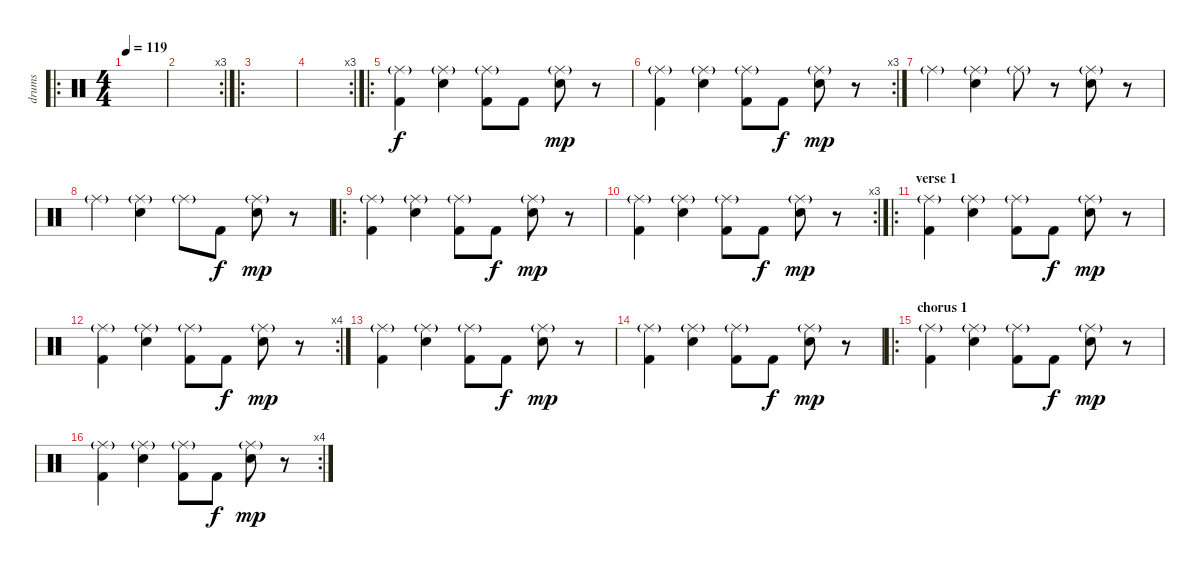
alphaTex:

\track ("drums" "drums") {instrument percussion}
\staff {score}
\articulation defaults
\ro
\ts (4 4)
\tempo 119
\clef neutral
\ks c
|
\rc 3
|
\ro
|
\rc 3
|
\ro
("Kick (hit) 2" "Ride (middle)"{g}).4 ("Electric Snare (hit)" "Ride (middle)"{g}).4 ("Kick (hit) 2" "Ride (middle)"{g}).8 "Kick (hit) 2".8{dy f} ("Electric Snare (hit)" "Ride (middle)"{g}).8{dy mp} r.8 |
\rc 3
("Kick (hit) 2" "Ride (middle)"{g}).4 ("Electric Snare (hit)" "Ride (middle)"{g}).4 ("Kick (hit) 2" "Ride (middle)"{g}).8 "Kick (hit) 2".8{dy f} ("Electric Snare (hit)" "Ride (middle)"{g}).8{dy mp} r.8 |
"Ride (middle)"{g}.4 ("Electric Snare (hit)" "Ride (middle)"{g}).4 "Ride (middle)"{g}.8 r.8 ("Electric Snare (hit)" "Ride (middle)"{g}).8 r.8 |
"Ride (middle)"{g}.4 ("Electric Snare (hit)" "Ride (middle)"{g}).4 "Ride (middle)"{g}.8 "Kick (hit) 2".8{dy f} ("Electric Snare (hit)" "Ride (middle)"{g}).8{dy mp} r.8 |
\ro
("Kick (hit) 2" "Ride (middle)"{g}).4 ("Electric Snare (hit)" "Ride (middle)"{g}).4 ("Kick (hit) 2" "Ride (middle)"{g}).8 "Kick (hit) 2".8{dy f} ("Electric Snare (hit)" "Ride (middle)"{g}).8{dy mp} r.8 |
\rc 3
("Kick (hit) 2" "Ride (middle)"{g}).4 ("Electric Snare (hit)" "Ride (middle)"{g}).4 ("Kick (hit) 2" "Ride (middle)"{g}).8 "Kick (hit) 2".8{dy f} ("Electric Snare (hit)" "Ride (middle)"{g}).8{dy mp} r.8 |
\ro
\section ("" "verse 1")
("Kick (hit) 2" "Ride (middle)"{g}).4 ("Electric Snare (hit)" "Ride (middle)"{g}).4 ("Kick (hit) 2" "Ride (middle)"{g}).8 "Kick (hit) 2".8{dy f} ("Electric Snare (hit)" "Ride (middle)"{g}).8{dy mp} r.8 |
\rc 4
("Kick (hit) 2" "Ride (middle)"{g}).4 ("Electric Snare (hit)" "Ride (middle)"{g}).4 ("Kick (hit) 2" "Ride (middle)"{g}).8 "Kick (hit) 2".8{dy f} ("Electric Snare (hit)" "Ride (middle)"{g}).8{dy mp} r.8 |
("Kick (hit) 2" "Ride (middle)"{g}).4 ("Electric Snare (hit)" "Ride (middle)"{g}).4 ("Kick (hit) 2" "Ride (middle)"{g}).8 "Kick (hit) 2".8{dy f} ("Electric Snare (hit)" "Ride (middle)"{g}).8{dy mp} r.8 |
("Kick (hit) 2" "Ride (middle)"{g}).4 ("Electric Snare (hit)" "Ride (middle)"{g}).4 ("Kick (hit) 2" "Ride (middle)"{g}).8 "Kick (hit) 2".8{dy f} ("Electric Snare (hit)" "Ride (middle)"{g}).8{dy mp} r.8 |
\ro
\section ("" "chorus 1")
("Kick (hit) 2" "Ride (middle)"{g}).4 ("Electric Snare (hit)" "Ride (middle)"{g}).4 ("Kick (hit) 2" "Ride (middle)"{g}).8 "Kick (hit) 2".8{dy f} ("Electric Snare (hit)" "Ride (middle)"{g}).8{dy mp} r.8 |
\rc 4
("Kick (hit) 2" "Ride (middle)"{g}).4 ("Electric Snare (hit)" "Ride (middle)"{g}).4 ("Kick (hit) 2" "Ride (middle)"{g}).8 "Kick (hit) 2".8{dy f} ("Electric Snare (hit)" "Ride (middle)"{g}).8{dy mp} r.8
